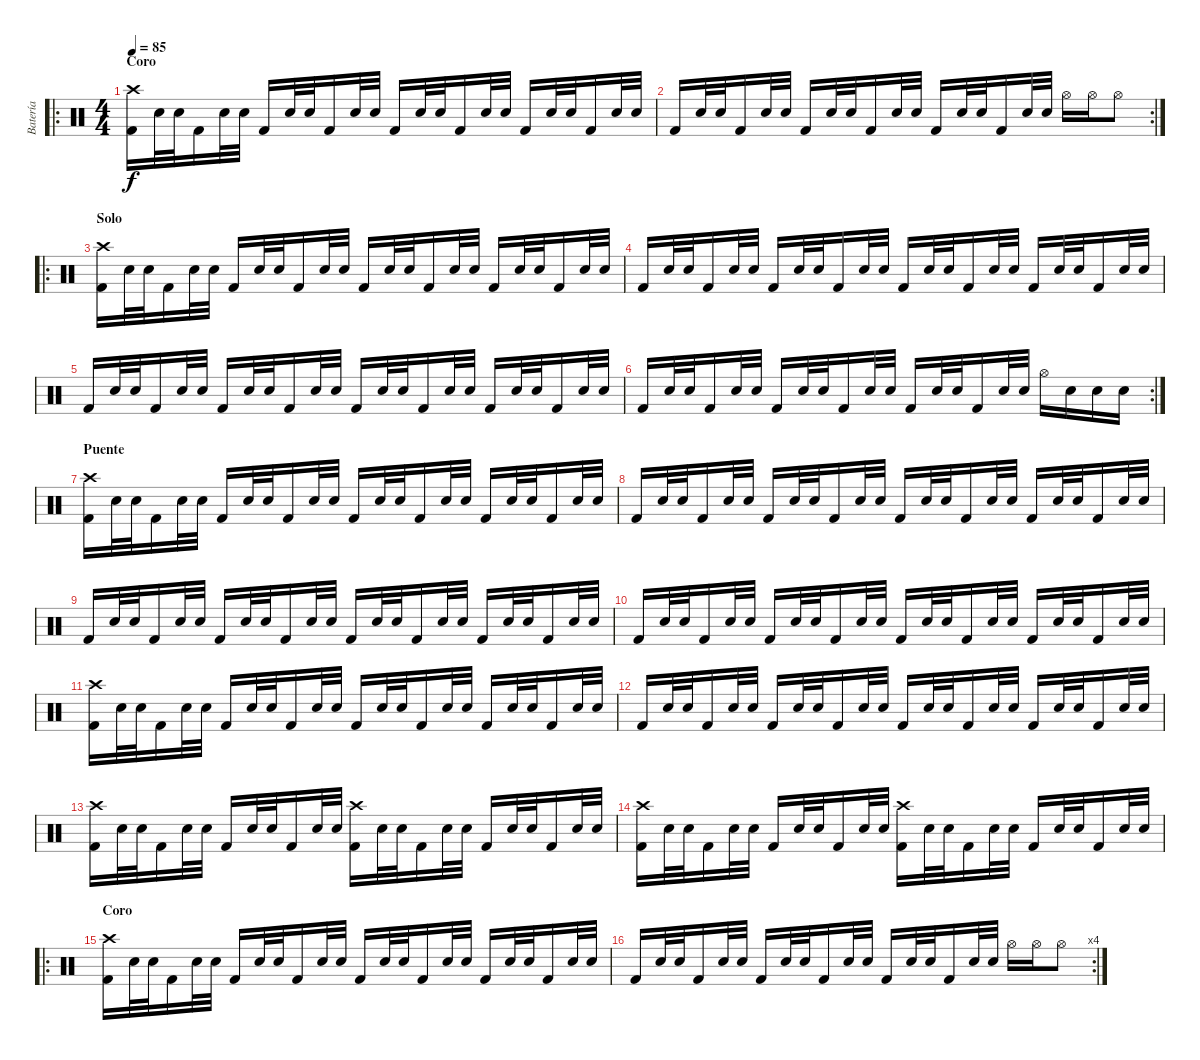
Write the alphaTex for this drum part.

\track ("Batería" "Batería") {instrument percussion}
\staff {score}
\articulation defaults
\ro
\ts (4 4)
\section ("" "Coro")
\tempo 85
\clef neutral
\ks c
("Crash high (hit)" "Kick (hit) 2").16{dy f} "Snare (hit) 2".32 "Electric Snare (hit)".32 "Kick (hit) 2".16 "Snare (hit) 2".32 "Electric Snare (hit)".32 "Kick (hit) 2".16 "Snare (hit) 2".32 "Electric Snare (hit)".32 "Kick (hit) 2".16 "Snare (hit) 2".32 "Electric Snare (hit)".32 "Kick (hit) 2".16 "Snare (hit) 2".32 "Electric Snare (hit)".32 "Kick (hit) 2".16 "Snare (hit) 2".32 "Electric Snare (hit)".32 "Kick (hit) 2".16 "Snare (hit) 2".32 "Electric Snare (hit)".32 "Kick (hit) 2".16 "Snare (hit) 2".32 "Electric Snare (hit)".32 |
\rc 2 "Kick (hit) 2".16 "Snare (hit) 2".32 "Electric Snare (hit)".32 "Kick (hit) 2".16 "Snare (hit) 2".32 "Electric Snare (hit)".32 "Kick (hit) 2".16 "Snare (hit) 2".32 "Electric Snare (hit)".32 "Kick (hit) 2".16 "Snare (hit) 2".32 "Electric Snare (hit)".32 "Kick (hit) 2".16 "Snare (hit) 2".32 "Electric Snare (hit)".32 "Kick (hit) 2".16 "Snare (hit) 2".32 "Electric Snare (hit)".32 "Hi-Hat (open)".16 "Hi-Hat (open)".16 "Hi-Hat (open)".8
|
\ro
\section ("" "Solo")
("Crash high (hit)" "Kick (hit) 2").16 "Snare (hit) 2".32 "Electric Snare (hit)".32 "Kick (hit) 2".16 "Snare (hit) 2".32 "Electric Snare (hit)".32 "Kick (hit) 2".16 "Snare (hit) 2".32 "Electric Snare (hit)".32 "Kick (hit) 2".16 "Snare (hit) 2".32 "Electric Snare (hit)".32 "Kick (hit) 2".16 "Snare (hit) 2".32 "Electric Snare (hit)".32 "Kick (hit) 2".16 "Snare (hit) 2".32 "Electric Snare (hit)".32 "Kick (hit) 2".16 "Snare (hit) 2".32 "Electric Snare (hit)".32 "Kick (hit) 2".16 "Snare (hit) 2".32 "Electric Snare (hit)".32 |
"Kick (hit) 2".16 "Snare (hit) 2".32 "Electric Snare (hit)".32 "Kick (hit) 2".16 "Snare (hit) 2".32 "Electric Snare (hit)".32 "Kick (hit) 2".16 "Snare (hit) 2".32 "Electric Snare (hit)".32 "Kick (hit) 2".16 "Snare (hit) 2".32 "Electric Snare (hit)".32 "Kick (hit) 2".16 "Snare (hit) 2".32 "Electric Snare (hit)".32 "Kick (hit) 2".16 "Snare (hit) 2".32 "Electric Snare (hit)".32 "Kick (hit) 2".16 "Snare (hit) 2".32 "Electric Snare (hit)".32 "Kick (hit) 2".16 "Snare (hit) 2".32 "Electric Snare (hit)".32 |
"Kick (hit) 2".16 "Snare (hit) 2".32 "Electric Snare (hit)".32 "Kick (hit) 2".16 "Snare (hit) 2".32 "Electric Snare (hit)".32 "Kick (hit) 2".16 "Snare (hit) 2".32 "Electric Snare (hit)".32 "Kick (hit) 2".16 "Snare (hit) 2".32 "Electric Snare (hit)".32 "Kick (hit) 2".16 "Snare (hit) 2".32 "Electric Snare (hit)".32 "Kick (hit) 2".16 "Snare (hit) 2".32 "Electric Snare (hit)".32 "Kick (hit) 2".16 "Snare (hit) 2".32 "Electric Snare (hit)".32 "Kick (hit) 2".16 "Snare (hit) 2".32 "Electric Snare (hit)".32 |
\rc 2 "Kick (hit) 2".16 "Snare (hit) 2".32 "Electric Snare (hit)".32 "Kick (hit) 2".16 "Snare (hit) 2".32 "Electric Snare (hit)".32 "Kick (hit) 2".16 "Snare (hit) 2".32 "Electric Snare (hit)".32 "Kick (hit) 2".16 "Snare (hit) 2".32 "Electric Snare (hit)".32 "Kick (hit) 2".16 "Snare (hit) 2".32 "Electric Snare (hit)".32 "Kick (hit) 2".16 "Snare (hit) 2".32 "Electric Snare (hit)".32 "Hi-Hat (open)".16 "Snare (hit) 2".16 "Snare (hit) 2".16 "Snare (hit) 2".16
|
\section ("" "Puente")
("Crash high (hit)" "Kick (hit) 2").16 "Snare (hit) 2".32 "Electric Snare (hit)".32 "Kick (hit) 2".16 "Snare (hit) 2".32 "Electric Snare (hit)".32 "Kick (hit) 2".16 "Snare (hit) 2".32 "Electric Snare (hit)".32 "Kick (hit) 2".16 "Snare (hit) 2".32 "Electric Snare (hit)".32 "Kick (hit) 2".16 "Snare (hit) 2".32 "Electric Snare (hit)".32 "Kick (hit) 2".16 "Snare (hit) 2".32 "Electric Snare (hit)".32 "Kick (hit) 2".16 "Snare (hit) 2".32 "Electric Snare (hit)".32 "Kick (hit) 2".16 "Snare (hit) 2".32 "Electric Snare (hit)".32 |
"Kick (hit) 2".16 "Snare (hit) 2".32 "Electric Snare (hit)".32 "Kick (hit) 2".16 "Snare (hit) 2".32 "Electric Snare (hit)".32 "Kick (hit) 2".16 "Snare (hit) 2".32 "Electric Snare (hit)".32 "Kick (hit) 2".16 "Snare (hit) 2".32 "Electric Snare (hit)".32 "Kick (hit) 2".16 "Snare (hit) 2".32 "Electric Snare (hit)".32 "Kick (hit) 2".16 "Snare (hit) 2".32 "Electric Snare (hit)".32 "Kick (hit) 2".16 "Snare (hit) 2".32 "Electric Snare (hit)".32 "Kick (hit) 2".16 "Snare (hit) 2".32 "Electric Snare (hit)".32 |
"Kick (hit) 2".16 "Snare (hit) 2".32 "Electric Snare (hit)".32 "Kick (hit) 2".16 "Snare (hit) 2".32 "Electric Snare (hit)".32 "Kick (hit) 2".16 "Snare (hit) 2".32 "Electric Snare (hit)".32 "Kick (hit) 2".16 "Snare (hit) 2".32 "Electric Snare (hit)".32 "Kick (hit) 2".16 "Snare (hit) 2".32 "Electric Snare (hit)".32 "Kick (hit) 2".16 "Snare (hit) 2".32 "Electric Snare (hit)".32 "Kick (hit) 2".16 "Snare (hit) 2".32 "Electric Snare (hit)".32 "Kick (hit) 2".16 "Snare (hit) 2".32 "Electric Snare (hit)".32 |
"Kick (hit) 2".16 "Snare (hit) 2".32 "Electric Snare (hit)".32 "Kick (hit) 2".16 "Snare (hit) 2".32 "Electric Snare (hit)".32 "Kick (hit) 2".16 "Snare (hit) 2".32 "Electric Snare (hit)".32 "Kick (hit) 2".16 "Snare (hit) 2".32 "Electric Snare (hit)".32 "Kick (hit) 2".16 "Snare (hit) 2".32 "Electric Snare (hit)".32 "Kick (hit) 2".16 "Snare (hit) 2".32 "Electric Snare (hit)".32 "Kick (hit) 2".16 "Snare (hit) 2".32 "Electric Snare (hit)".32 "Kick (hit) 2".16 "Snare (hit) 2".32 "Electric Snare (hit)".32 |
("Crash high (hit)" "Kick (hit) 2").16 "Snare (hit) 2".32 "Electric Snare (hit)".32 "Kick (hit) 2".16 "Snare (hit) 2".32 "Electric Snare (hit)".32 "Kick (hit) 2".16 "Snare (hit) 2".32 "Electric Snare (hit)".32 "Kick (hit) 2".16 "Snare (hit) 2".32 "Electric Snare (hit)".32 "Kick (hit) 2".16 "Snare (hit) 2".32 "Electric Snare (hit)".32 "Kick (hit) 2".16 "Snare (hit) 2".32 "Electric Snare (hit)".32 "Kick (hit) 2".16 "Snare (hit) 2".32 "Electric Snare (hit)".32 "Kick (hit) 2".16 "Snare (hit) 2".32 "Electric Snare (hit)".32 |
"Kick (hit) 2".16 "Snare (hit) 2".32 "Electric Snare (hit)".32 "Kick (hit) 2".16 "Snare (hit) 2".32 "Electric Snare (hit)".32 "Kick (hit) 2".16 "Snare (hit) 2".32 "Electric Snare (hit)".32 "Kick (hit) 2".16 "Snare (hit) 2".32 "Electric Snare (hit)".32 "Kick (hit) 2".16 "Snare (hit) 2".32 "Electric Snare (hit)".32 "Kick (hit) 2".16 "Snare (hit) 2".32 "Electric Snare (hit)".32 "Kick (hit) 2".16 "Snare (hit) 2".32 "Electric Snare (hit)".32 "Kick (hit) 2".16 "Snare (hit) 2".32 "Electric Snare (hit)".32 |
("Crash high (hit)" "Kick (hit) 2").16 "Snare (hit) 2".32 "Electric Snare (hit)".32 "Kick (hit) 2".16 "Snare (hit) 2".32 "Electric Snare (hit)".32 "Kick (hit) 2".16 "Snare (hit) 2".32 "Electric Snare (hit)".32 "Kick (hit) 2".16 "Snare (hit) 2".32 "Electric Snare (hit)".32 ("Crash high (hit)" "Kick (hit) 2").16 "Snare (hit) 2".32 "Electric Snare (hit)".32 "Kick (hit) 2".16 "Snare (hit) 2".32 "Electric Snare (hit)".32 "Kick (hit) 2".16 "Snare (hit) 2".32 "Electric Snare (hit)".32 "Kick (hit) 2".16 "Snare (hit) 2".32 "Electric Snare (hit)".32 |
("Crash high (hit)" "Kick (hit) 2").16 "Snare (hit) 2".32 "Electric Snare (hit)".32 "Kick (hit) 2".16 "Snare (hit) 2".32 "Electric Snare (hit)".32 "Kick (hit) 2".16 "Snare (hit) 2".32 "Electric Snare (hit)".32 "Kick (hit) 2".16 "Snare (hit) 2".32 "Electric Snare (hit)".32 ("Crash high (hit)" "Kick (hit) 2").16 "Snare (hit) 2".32 "Electric Snare (hit)".32 "Kick (hit) 2".16 "Snare (hit) 2".32 "Electric Snare (hit)".32 "Kick (hit) 2".16 "Snare (hit) 2".32 "Electric Snare (hit)".32 "Kick (hit) 2".16 "Snare (hit) 2".32 "Electric Snare (hit)".32 |
\ro
\section ("" "Coro")
("Crash high (hit)" "Kick (hit) 2").16 "Snare (hit) 2".32 "Electric Snare (hit)".32 "Kick (hit) 2".16 "Snare (hit) 2".32 "Electric Snare (hit)".32 "Kick (hit) 2".16 "Snare (hit) 2".32 "Electric Snare (hit)".32 "Kick (hit) 2".16 "Snare (hit) 2".32 "Electric Snare (hit)".32 "Kick (hit) 2".16 "Snare (hit) 2".32 "Electric Snare (hit)".32 "Kick (hit) 2".16 "Snare (hit) 2".32 "Electric Snare (hit)".32 "Kick (hit) 2".16 "Snare (hit) 2".32 "Electric Snare (hit)".32 "Kick (hit) 2".16 "Snare (hit) 2".32 "Electric Snare (hit)".32 |
\rc 4 "Kick (hit) 2".16 "Snare (hit) 2".32 "Electric Snare (hit)".32 "Kick (hit) 2".16 "Snare (hit) 2".32 "Electric Snare (hit)".32 "Kick (hit) 2".16 "Snare (hit) 2".32 "Electric Snare (hit)".32 "Kick (hit) 2".16 "Snare (hit) 2".32 "Electric Snare (hit)".32 "Kick (hit) 2".16 "Snare (hit) 2".32 "Electric Snare (hit)".32 "Kick (hit) 2".16 "Snare (hit) 2".32 "Electric Snare (hit)".32 "Hi-Hat (open)".16 "Hi-Hat (open)".16 "Hi-Hat (open)".8
